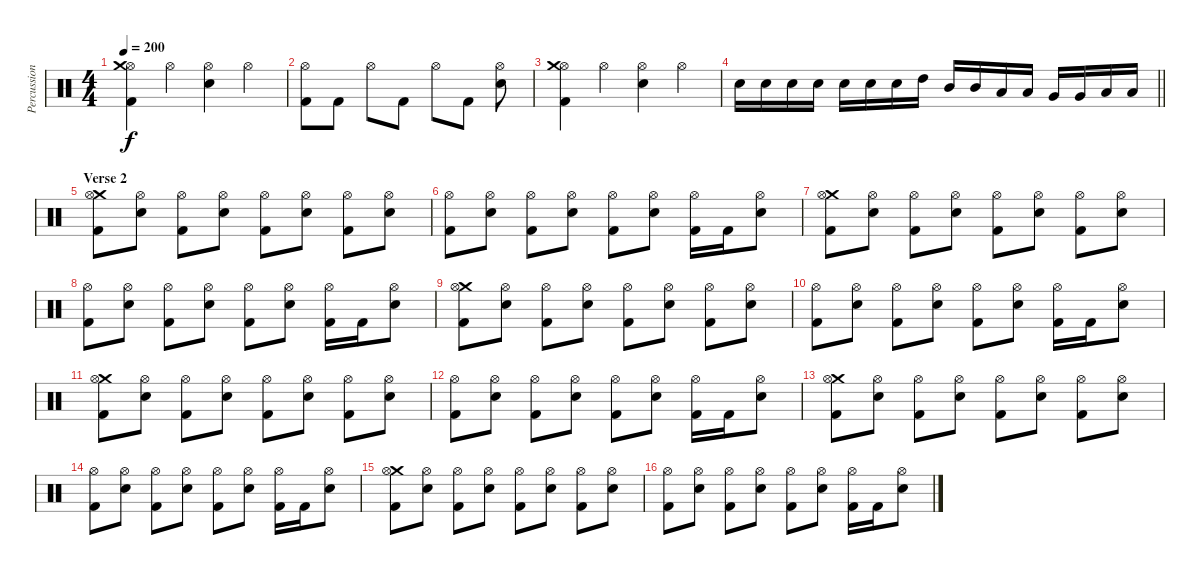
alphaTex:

\track ("Percussion" "Percussion") {instrument percussion}
\staff {score}
\articulation defaults
\ts (4 4)
\tempo 200
\clef neutral
\ks c
("Kick (hit) 2" "Hi-Hat (open)" "Crash medium (hit)").4{dy f} "Hi-Hat (open)".4 ("Electric Snare (hit)" "Hi-Hat (open)").4 "Hi-Hat (open)".4 |
("Kick (hit) 2" "Hi-Hat (open)").8 "Kick (hit) 2".8 "Hi-Hat (open)".8 "Kick (hit) 2".8 "Hi-Hat (open)".8 "Kick (hit) 2".8 ("Electric Snare (hit)" "Hi-Hat (open)").8 |
("Kick (hit) 2" "Hi-Hat (open)" "Crash medium (hit)").4 "Hi-Hat (open)".4 ("Electric Snare (hit)" "Hi-Hat (open)").4 "Hi-Hat (open)".4 |
\barLineRight lightlight "Electric Snare (hit)".16 "Electric Snare (hit)".16 "Electric Snare (hit)".16 "Electric Snare (hit)".16 "Electric Snare (hit)".16 "Electric Snare (hit)".16 "Electric Snare (hit)".16 "High Tom (hit)".16 "Mid Tom (hit)".16 "Mid Tom (hit)".16 "Low Tom (hit)".16 "Low Tom (hit)".16 "Very Low Tom (hit)".16 "Very Low Tom (hit)".16 "Low Floor Tom (hit)".16 "Low Floor Tom (hit)".16
|
\section ("" "Verse 2")
("Kick (hit) 2" "Crash medium (hit)" "Hi-Hat (open)").8 ("Electric Snare (hit)" "Hi-Hat (open)").8 ("Kick (hit) 2" "Hi-Hat (open)").8 ("Electric Snare (hit)" "Hi-Hat (open)").8 ("Kick (hit) 2" "Hi-Hat (open)").8 ("Electric Snare (hit)" "Hi-Hat (open)").8 ("Kick (hit) 2" "Hi-Hat (open)").8 ("Electric Snare (hit)" "Hi-Hat (open)").8 |
("Kick (hit) 2" "Hi-Hat (open)").8 ("Electric Snare (hit)" "Hi-Hat (open)").8 ("Kick (hit) 2" "Hi-Hat (open)").8 ("Electric Snare (hit)" "Hi-Hat (open)").8 ("Kick (hit) 2" "Hi-Hat (open)").8 ("Electric Snare (hit)" "Hi-Hat (open)").8 ("Kick (hit) 2" "Hi-Hat (open)").16 "Kick (hit) 2".16 ("Electric Snare (hit)" "Hi-Hat (open)").8 |
("Kick (hit) 2" "Crash medium (hit)" "Hi-Hat (open)").8 ("Electric Snare (hit)" "Hi-Hat (open)").8 ("Kick (hit) 2" "Hi-Hat (open)").8 ("Electric Snare (hit)" "Hi-Hat (open)").8 ("Kick (hit) 2" "Hi-Hat (open)").8 ("Electric Snare (hit)" "Hi-Hat (open)").8 ("Kick (hit) 2" "Hi-Hat (open)").8 ("Electric Snare (hit)" "Hi-Hat (open)").8 |
("Kick (hit) 2" "Hi-Hat (open)").8 ("Electric Snare (hit)" "Hi-Hat (open)").8 ("Kick (hit) 2" "Hi-Hat (open)").8 ("Electric Snare (hit)" "Hi-Hat (open)").8 ("Kick (hit) 2" "Hi-Hat (open)").8 ("Electric Snare (hit)" "Hi-Hat (open)").8 ("Kick (hit) 2" "Hi-Hat (open)").16 "Kick (hit) 2".16 ("Electric Snare (hit)" "Hi-Hat (open)").8 |
("Kick (hit) 2" "Crash medium (hit)" "Hi-Hat (open)").8 ("Electric Snare (hit)" "Hi-Hat (open)").8 ("Kick (hit) 2" "Hi-Hat (open)").8 ("Electric Snare (hit)" "Hi-Hat (open)").8 ("Kick (hit) 2" "Hi-Hat (open)").8 ("Electric Snare (hit)" "Hi-Hat (open)").8 ("Kick (hit) 2" "Hi-Hat (open)").8 ("Electric Snare (hit)" "Hi-Hat (open)").8 |
("Kick (hit) 2" "Hi-Hat (open)").8 ("Electric Snare (hit)" "Hi-Hat (open)").8 ("Kick (hit) 2" "Hi-Hat (open)").8 ("Electric Snare (hit)" "Hi-Hat (open)").8 ("Kick (hit) 2" "Hi-Hat (open)").8 ("Electric Snare (hit)" "Hi-Hat (open)").8 ("Kick (hit) 2" "Hi-Hat (open)").16 "Kick (hit) 2".16 ("Electric Snare (hit)" "Hi-Hat (open)").8 |
("Kick (hit) 2" "Crash medium (hit)" "Hi-Hat (open)").8 ("Electric Snare (hit)" "Hi-Hat (open)").8 ("Kick (hit) 2" "Hi-Hat (open)").8 ("Electric Snare (hit)" "Hi-Hat (open)").8 ("Kick (hit) 2" "Hi-Hat (open)").8 ("Electric Snare (hit)" "Hi-Hat (open)").8 ("Kick (hit) 2" "Hi-Hat (open)").8 ("Electric Snare (hit)" "Hi-Hat (open)").8 |
("Kick (hit) 2" "Hi-Hat (open)").8 ("Electric Snare (hit)" "Hi-Hat (open)").8 ("Kick (hit) 2" "Hi-Hat (open)").8 ("Electric Snare (hit)" "Hi-Hat (open)").8 ("Kick (hit) 2" "Hi-Hat (open)").8 ("Electric Snare (hit)" "Hi-Hat (open)").8 ("Kick (hit) 2" "Hi-Hat (open)").16 "Kick (hit) 2".16 ("Electric Snare (hit)" "Hi-Hat (open)").8 |
("Kick (hit) 2" "Crash medium (hit)" "Hi-Hat (open)").8 ("Electric Snare (hit)" "Hi-Hat (open)").8 ("Kick (hit) 2" "Hi-Hat (open)").8 ("Electric Snare (hit)" "Hi-Hat (open)").8 ("Kick (hit) 2" "Hi-Hat (open)").8 ("Electric Snare (hit)" "Hi-Hat (open)").8 ("Kick (hit) 2" "Hi-Hat (open)").8 ("Electric Snare (hit)" "Hi-Hat (open)").8 |
("Kick (hit) 2" "Hi-Hat (open)").8 ("Electric Snare (hit)" "Hi-Hat (open)").8 ("Kick (hit) 2" "Hi-Hat (open)").8 ("Electric Snare (hit)" "Hi-Hat (open)").8 ("Kick (hit) 2" "Hi-Hat (open)").8 ("Electric Snare (hit)" "Hi-Hat (open)").8 ("Kick (hit) 2" "Hi-Hat (open)").16 "Kick (hit) 2".16 ("Electric Snare (hit)" "Hi-Hat (open)").8 |
("Kick (hit) 2" "Crash medium (hit)" "Hi-Hat (open)").8 ("Electric Snare (hit)" "Hi-Hat (open)").8 ("Kick (hit) 2" "Hi-Hat (open)").8 ("Electric Snare (hit)" "Hi-Hat (open)").8 ("Kick (hit) 2" "Hi-Hat (open)").8 ("Electric Snare (hit)" "Hi-Hat (open)").8 ("Kick (hit) 2" "Hi-Hat (open)").8 ("Electric Snare (hit)" "Hi-Hat (open)").8 |
("Kick (hit) 2" "Hi-Hat (open)").8 ("Electric Snare (hit)" "Hi-Hat (open)").8 ("Kick (hit) 2" "Hi-Hat (open)").8 ("Electric Snare (hit)" "Hi-Hat (open)").8 ("Kick (hit) 2" "Hi-Hat (open)").8 ("Electric Snare (hit)" "Hi-Hat (open)").8 ("Kick (hit) 2" "Hi-Hat (open)").16 "Kick (hit) 2".16 ("Electric Snare (hit)" "Hi-Hat (open)").8
